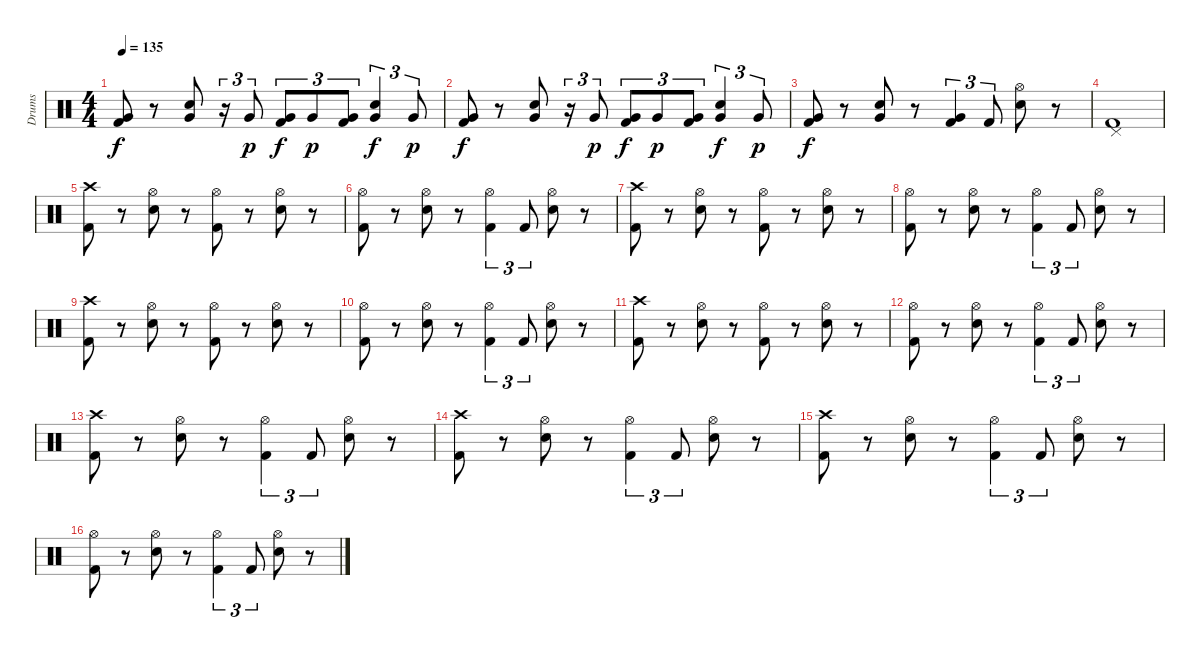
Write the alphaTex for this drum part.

\track ("Drums" "Drums") {instrument percussion}
\staff {score}
\articulation defaults
\ts (4 4)
\tempo 135
\clef neutral
\ks c
("Very Low Tom (hit)" "Kick (hit) 2").8{dy f} r.8 ("Very Low Tom (hit)" "Electric Snare (hit)").8 r.16{tu (3 2)} "Very Low Tom (hit)".8{tu (3 2) dy p} ("Very Low Tom (hit)" "Kick (hit) 2").8{tu (3 2) dy f} "Very Low Tom (hit)".8{tu (3 2) dy p} ("Very Low Tom (hit)" "Kick (hit) 2").8{tu (3 2)} ("Very Low Tom (hit)" "Electric Snare (hit)").4{tu (3 2) dy f} "Very Low Tom (hit)".8{tu (3 2) dy p} |
("Very Low Tom (hit)" "Kick (hit) 2").8{dy f} r.8 ("Very Low Tom (hit)" "Electric Snare (hit)").8 r.16{tu (3 2)} "Very Low Tom (hit)".8{tu (3 2) dy p} ("Very Low Tom (hit)" "Kick (hit) 2").8{tu (3 2) dy f} "Very Low Tom (hit)".8{tu (3 2) dy p} ("Very Low Tom (hit)" "Kick (hit) 2").8{tu (3 2)} ("Very Low Tom (hit)" "Electric Snare (hit)").4{tu (3 2) dy f} "Very Low Tom (hit)".8{tu (3 2) dy p} |
("Very Low Tom (hit)" "Kick (hit) 2").8{dy f} r.8 ("Very Low Tom (hit)" "Electric Snare (hit)").8 r.8 ("Very Low Tom (hit)" "Kick (hit) 2").4{tu (3 2)} "Kick (hit) 2".8{tu (3 2)} ("Hi-Hat (open)" "Electric Snare (hit)").8 r.8 |
("Pedal Hi-Hat (hit)" "Kick (hit) 2").1 |
("Crash high (hit)" "Kick (hit) 2").8 r.8 ("Hi-Hat (open)" "Electric Snare (hit)").8 r.8 ("Hi-Hat (open)" "Kick (hit) 2").8 r.8 ("Hi-Hat (open)" "Electric Snare (hit)").8 r.8 |
("Hi-Hat (open)" "Kick (hit) 2").8 r.8 ("Hi-Hat (open)" "Electric Snare (hit)").8 r.8 ("Hi-Hat (open)" "Kick (hit) 2").4{tu (3 2)} "Kick (hit) 2".8{tu (3 2)} ("Hi-Hat (open)" "Electric Snare (hit)").8 r.8 |
("Crash high (hit)" "Kick (hit) 2").8 r.8 ("Hi-Hat (open)" "Electric Snare (hit)").8 r.8 ("Hi-Hat (open)" "Kick (hit) 2").8 r.8 ("Hi-Hat (open)" "Electric Snare (hit)").8 r.8 |
("Hi-Hat (open)" "Kick (hit) 2").8 r.8 ("Hi-Hat (open)" "Electric Snare (hit)").8 r.8 ("Hi-Hat (open)" "Kick (hit) 2").4{tu (3 2)} "Kick (hit) 2".8{tu (3 2)} ("Hi-Hat (open)" "Electric Snare (hit)").8 r.8 |
("Crash high (hit)" "Kick (hit) 2").8 r.8 ("Hi-Hat (open)" "Electric Snare (hit)").8 r.8 ("Hi-Hat (open)" "Kick (hit) 2").8 r.8 ("Hi-Hat (open)" "Electric Snare (hit)").8 r.8 |
("Hi-Hat (open)" "Kick (hit) 2").8 r.8 ("Hi-Hat (open)" "Electric Snare (hit)").8 r.8 ("Hi-Hat (open)" "Kick (hit) 2").4{tu (3 2)} "Kick (hit) 2".8{tu (3 2)} ("Hi-Hat (open)" "Electric Snare (hit)").8 r.8 |
("Crash high (hit)" "Kick (hit) 2").8 r.8 ("Hi-Hat (open)" "Electric Snare (hit)").8 r.8 ("Hi-Hat (open)" "Kick (hit) 2").8 r.8 ("Hi-Hat (open)" "Electric Snare (hit)").8 r.8 |
("Hi-Hat (open)" "Kick (hit) 2").8 r.8 ("Hi-Hat (open)" "Electric Snare (hit)").8 r.8 ("Hi-Hat (open)" "Kick (hit) 2").4{tu (3 2)} "Kick (hit) 2".8{tu (3 2)} ("Hi-Hat (open)" "Electric Snare (hit)").8 r.8 |
("Crash high (hit)" "Kick (hit) 2").8 r.8 ("Hi-Hat (open)" "Electric Snare (hit)").8 r.8 ("Hi-Hat (open)" "Kick (hit) 2").4{tu (3 2)} "Kick (hit) 2".8{tu (3 2)} ("Hi-Hat (open)" "Electric Snare (hit)").8 r.8 |
("Crash high (hit)" "Kick (hit) 2").8 r.8 ("Hi-Hat (open)" "Electric Snare (hit)").8 r.8 ("Hi-Hat (open)" "Kick (hit) 2").4{tu (3 2)} "Kick (hit) 2".8{tu (3 2)} ("Hi-Hat (open)" "Electric Snare (hit)").8 r.8 |
("Crash high (hit)" "Kick (hit) 2").8 r.8 ("Hi-Hat (open)" "Electric Snare (hit)").8 r.8 ("Hi-Hat (open)" "Kick (hit) 2").4{tu (3 2)} "Kick (hit) 2".8{tu (3 2)} ("Hi-Hat (open)" "Electric Snare (hit)").8 r.8 |
("Hi-Hat (open)" "Kick (hit) 2").8 r.8 ("Hi-Hat (open)" "Electric Snare (hit)").8 r.8 ("Hi-Hat (open)" "Kick (hit) 2").4{tu (3 2)} "Kick (hit) 2".8{tu (3 2)} ("Hi-Hat (open)" "Electric Snare (hit)").8 r.8
